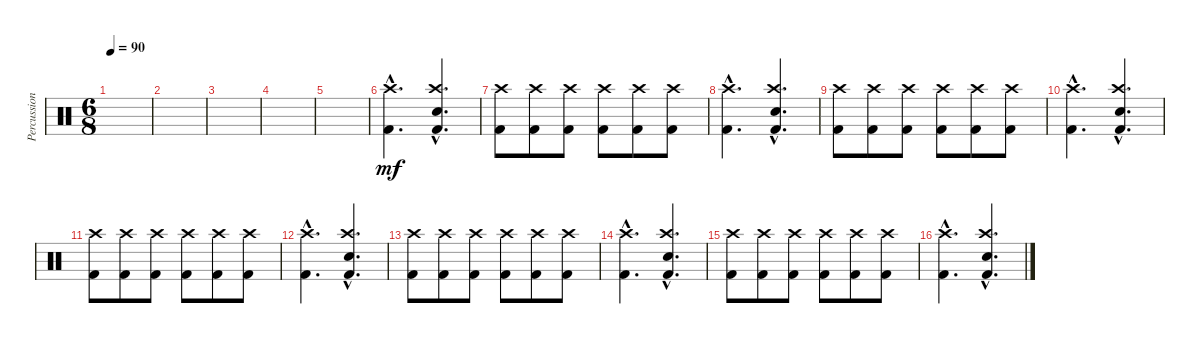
\track ("Percussion" "Percussion") {instrument percussion}
\staff {score}
\articulation defaults
\ts (6 8)
\tempo 90
\clef neutral
\ks c
|
|
|
|
|
("Kick (hit) 2"{hac} "Crash high (hit)"{hac}).4{d dy mf} ("Kick (hit) 2"{hac} "Snare (hit) 2"{hac} "Crash high (hit)"{hac}).4{d} |
("Kick (hit) 2" "Crash high (hit)").8 ("Kick (hit) 2" "Crash high (hit)").8 ("Kick (hit) 2" "Crash high (hit)").8 ("Kick (hit) 2" "Crash high (hit)").8 ("Kick (hit) 2" "Crash high (hit)").8 ("Kick (hit) 2" "Crash high (hit)").8 |
("Kick (hit) 2"{hac} "Crash high (hit)"{hac}).4{d} ("Kick (hit) 2"{hac} "Snare (hit) 2"{hac} "Crash high (hit)"{hac}).4{d} |
("Kick (hit) 2" "Crash high (hit)").8 ("Kick (hit) 2" "Crash high (hit)").8 ("Kick (hit) 2" "Crash high (hit)").8 ("Kick (hit) 2" "Crash high (hit)").8 ("Kick (hit) 2" "Crash high (hit)").8 ("Kick (hit) 2" "Crash high (hit)").8 |
("Kick (hit) 2"{hac} "Crash high (hit)"{hac}).4{d} ("Kick (hit) 2"{hac} "Snare (hit) 2"{hac} "Crash high (hit)"{hac}).4{d} |
("Kick (hit) 2" "Crash high (hit)").8 ("Kick (hit) 2" "Crash high (hit)").8 ("Kick (hit) 2" "Crash high (hit)").8 ("Kick (hit) 2" "Crash high (hit)").8 ("Kick (hit) 2" "Crash high (hit)").8 ("Kick (hit) 2" "Crash high (hit)").8 |
("Kick (hit) 2"{hac} "Crash high (hit)"{hac}).4{d} ("Kick (hit) 2"{hac} "Snare (hit) 2"{hac} "Crash high (hit)"{hac}).4{d} |
("Kick (hit) 2" "Crash high (hit)").8 ("Kick (hit) 2" "Crash high (hit)").8 ("Kick (hit) 2" "Crash high (hit)").8 ("Kick (hit) 2" "Crash high (hit)").8 ("Kick (hit) 2" "Crash high (hit)").8 ("Kick (hit) 2" "Crash high (hit)").8 |
("Kick (hit) 2"{hac} "Crash high (hit)"{hac}).4{d} ("Kick (hit) 2"{hac} "Snare (hit) 2"{hac} "Crash high (hit)"{hac}).4{d} |
("Kick (hit) 2" "Crash high (hit)").8 ("Kick (hit) 2" "Crash high (hit)").8 ("Kick (hit) 2" "Crash high (hit)").8 ("Kick (hit) 2" "Crash high (hit)").8 ("Kick (hit) 2" "Crash high (hit)").8 ("Kick (hit) 2" "Crash high (hit)").8 |
("Kick (hit) 2"{hac} "Crash high (hit)"{hac}).4{d} ("Kick (hit) 2"{hac} "Snare (hit) 2"{hac} "Crash high (hit)"{hac}).4{d}
